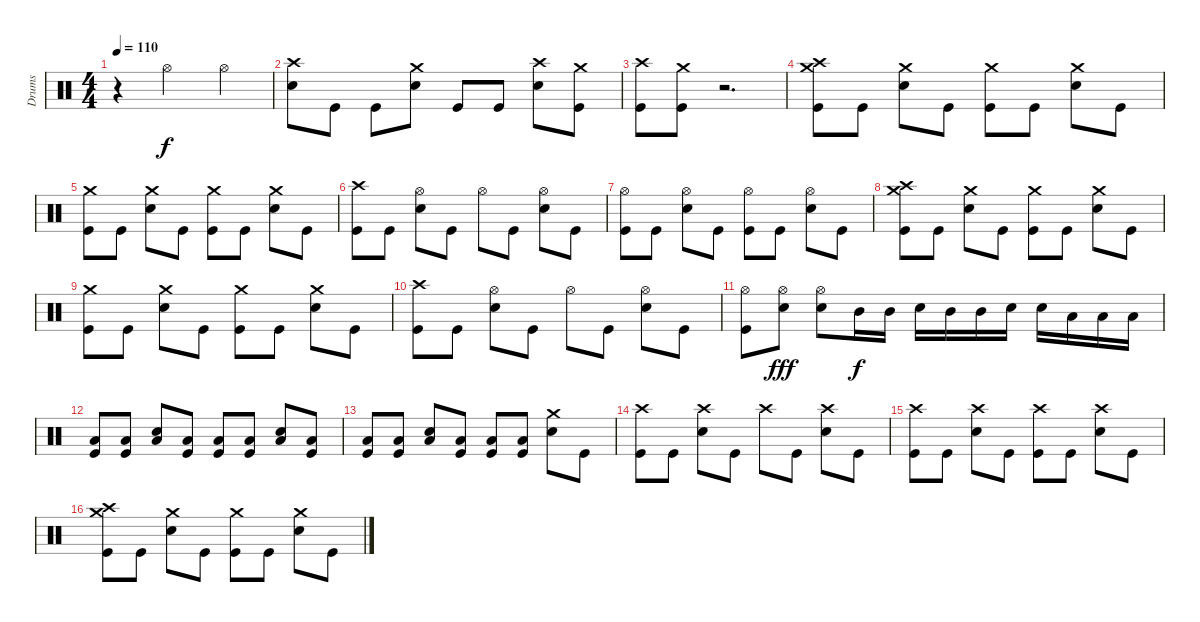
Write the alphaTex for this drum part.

\track ("Drums" "Drums") {instrument percussion}
\staff {score}
\articulation defaults
\ts (4 4)
\tempo 110
\clef neutral
\ks c
r.4{dy f} "Hi-Hat (open)".2 "Hi-Hat (open)".4 |
("Crash high (hit)" "Snare (hit) 2").8 "Kick (hit)".8 "Kick (hit)".8 ("Crash medium (hit)" "Snare (hit) 2").8 "Kick (hit)".8 "Kick (hit)".8 ("Crash high (hit)" "Snare (hit) 2").8 ("Crash medium (hit)" "Kick (hit)").8 |
("Crash high (hit)" "Kick (hit)").8 ("Crash medium (hit)" "Kick (hit)").8 r.2{d} |
("Crash medium (hit)" "Crash high (hit)" "Kick (hit)").8 "Kick (hit)".8 ("Crash medium (hit)" "Snare (hit) 2").8 "Kick (hit)".8 ("Crash medium (hit)" "Kick (hit)").8 "Kick (hit)".8 ("Crash medium (hit)" "Snare (hit) 2").8 "Kick (hit)".8 |
("Crash medium (hit)" "Kick (hit)").8 "Kick (hit)".8 ("Crash medium (hit)" "Snare (hit) 2").8 "Kick (hit)".8 ("Crash medium (hit)" "Kick (hit)").8 "Kick (hit)".8 ("Crash medium (hit)" "Snare (hit) 2").8 "Kick (hit)".8 |
("Crash high (hit)" "Kick (hit)").8 "Kick (hit)".8 ("Hi-Hat (open)" "Snare (hit) 2").8 "Kick (hit)".8 "Hi-Hat (open)".8 "Kick (hit)".8 ("Hi-Hat (open)" "Snare (hit) 2").8 "Kick (hit)".8 |
("Hi-Hat (open)" "Kick (hit)").8 "Kick (hit)".8 ("Hi-Hat (open)" "Snare (hit) 2").8 "Kick (hit)".8 ("Hi-Hat (open)" "Kick (hit)").8 "Kick (hit)".8 ("Hi-Hat (open)" "Snare (hit) 2").8 "Kick (hit)".8 |
("Crash medium (hit)" "Crash high (hit)" "Kick (hit)").8 "Kick (hit)".8 ("Crash medium (hit)" "Snare (hit) 2").8 "Kick (hit)".8 ("Crash medium (hit)" "Kick (hit)").8 "Kick (hit)".8 ("Crash medium (hit)" "Snare (hit) 2").8 "Kick (hit)".8 |
("Crash medium (hit)" "Kick (hit)").8 "Kick (hit)".8 ("Crash medium (hit)" "Snare (hit) 2").8 "Kick (hit)".8 ("Crash medium (hit)" "Kick (hit)").8 "Kick (hit)".8 ("Crash medium (hit)" "Snare (hit) 2").8 "Kick (hit)".8 |
("Crash high (hit)" "Kick (hit)").8 "Kick (hit)".8 ("Hi-Hat (open)" "Snare (hit) 2").8 "Kick (hit)".8 "Hi-Hat (open)".8 "Kick (hit)".8 ("Hi-Hat (open)" "Snare (hit) 2").8 "Kick (hit)".8 |
("Hi-Hat (open)" "Kick (hit)").8 ("Hi-Hat (open)" "Snare (hit) 2").8{dy fff} ("Hi-Hat (open)" "Snare (hit) 2").8 "Mid Tom (hit)".16{dy f} "Mid Tom (hit)".16 "Snare (hit) 2".16 "Mid Tom (hit)".16 "Mid Tom (hit)".16 "Snare (hit) 2".16 "Snare (hit) 2".16 "Low Floor Tom (hit)".16 "Low Floor Tom (hit)".16 "Low Floor Tom (hit)".16 |
("Low Floor Tom (hit)" "Kick (hit)").8 ("Low Floor Tom (hit)" "Kick (hit)").8 ("Snare (hit) 2" "Low Floor Tom (hit)").8 ("Low Floor Tom (hit)" "Kick (hit)").8 ("Low Floor Tom (hit)" "Kick (hit)").8 ("Low Floor Tom (hit)" "Kick (hit)").8 ("Snare (hit) 2" "Low Floor Tom (hit)").8 ("Low Floor Tom (hit)" "Kick (hit)").8 |
("Low Floor Tom (hit)" "Kick (hit)").8 ("Low Floor Tom (hit)" "Kick (hit)").8 ("Snare (hit) 2" "Low Floor Tom (hit)").8 ("Low Floor Tom (hit)" "Kick (hit)").8 ("Low Floor Tom (hit)" "Kick (hit)").8 ("Low Floor Tom (hit)" "Kick (hit)").8 ("Crash medium (hit)" "Snare (hit) 2").8 "Kick (hit)".8 |
("Crash high (hit)" "Kick (hit)").8 "Kick (hit)".8 ("Crash high (hit)" "Snare (hit) 2").8 "Kick (hit)".8 "Crash high (hit)".8 "Kick (hit)".8 ("Crash high (hit)" "Snare (hit) 2").8 "Kick (hit)".8 |
("Crash high (hit)" "Kick (hit)").8 "Kick (hit)".8 ("Crash high (hit)" "Snare (hit) 2").8 "Kick (hit)".8 ("Crash high (hit)" "Kick (hit)").8 "Kick (hit)".8 ("Crash high (hit)" "Snare (hit) 2").8 "Kick (hit)".8 |
("Crash medium (hit)" "Crash high (hit)" "Kick (hit)").8 "Kick (hit)".8 ("Crash medium (hit)" "Snare (hit) 2").8 "Kick (hit)".8 ("Crash medium (hit)" "Kick (hit)").8 "Kick (hit)".8 ("Crash medium (hit)" "Snare (hit) 2").8 "Kick (hit)".8
